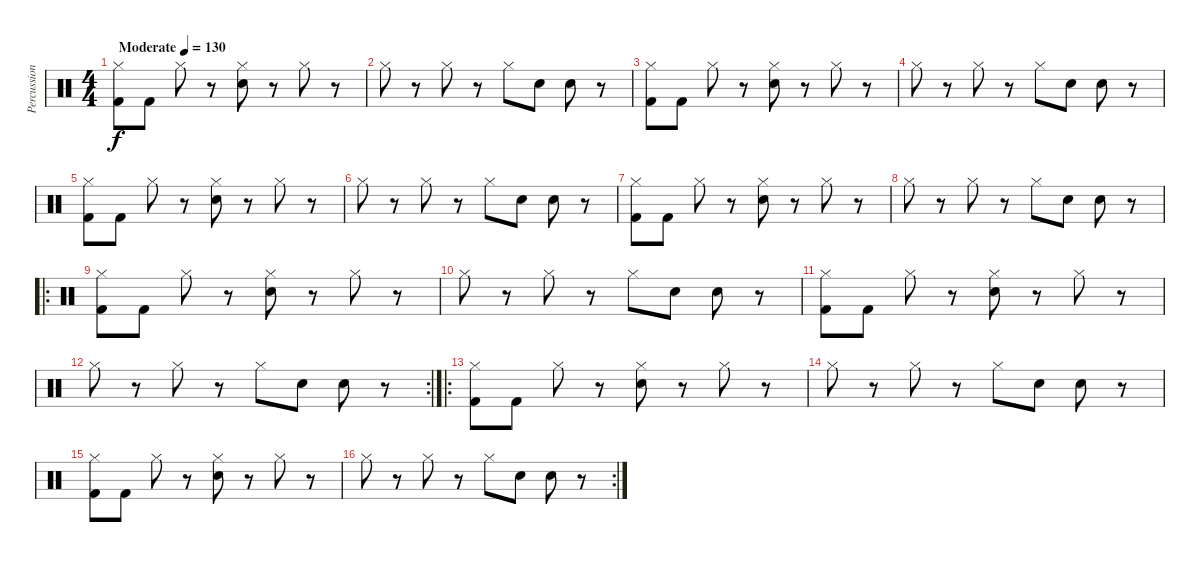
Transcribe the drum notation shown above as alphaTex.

\track ("Percussion" "Percussion") {instrument percussion}
\staff {score}
\articulation defaults
\ts (4 4)
\tempo (130 "Moderate")
\clef neutral
\ks c
("Hi-Hat (closed)" "Kick (hit) 2").8{dy f} "Kick (hit) 2".8 "Hi-Hat (closed)".8 r.8 ("Hi-Hat (closed)" "Electric Snare (hit)").8 r.8 "Hi-Hat (closed)".8 r.8 |
"Hi-Hat (closed)".8 r.8 "Hi-Hat (closed)".8 r.8 "Hi-Hat (closed)".8 "Electric Snare (hit)".8 "Electric Snare (hit)".8 r.8 |
("Hi-Hat (closed)" "Kick (hit) 2").8 "Kick (hit) 2".8 "Hi-Hat (closed)".8 r.8 ("Hi-Hat (closed)" "Electric Snare (hit)").8 r.8 "Hi-Hat (closed)".8 r.8 |
"Hi-Hat (closed)".8 r.8 "Hi-Hat (closed)".8 r.8 "Hi-Hat (closed)".8 "Electric Snare (hit)".8 "Electric Snare (hit)".8 r.8 |
("Hi-Hat (closed)" "Kick (hit) 2").8 "Kick (hit) 2".8 "Hi-Hat (closed)".8 r.8 ("Hi-Hat (closed)" "Electric Snare (hit)").8 r.8 "Hi-Hat (closed)".8 r.8 |
"Hi-Hat (closed)".8 r.8 "Hi-Hat (closed)".8 r.8 "Hi-Hat (closed)".8 "Electric Snare (hit)".8 "Electric Snare (hit)".8 r.8 |
("Hi-Hat (closed)" "Kick (hit) 2").8 "Kick (hit) 2".8 "Hi-Hat (closed)".8 r.8 ("Hi-Hat (closed)" "Electric Snare (hit)").8 r.8 "Hi-Hat (closed)".8 r.8 |
"Hi-Hat (closed)".8 r.8 "Hi-Hat (closed)".8 r.8 "Hi-Hat (closed)".8 "Electric Snare (hit)".8 "Electric Snare (hit)".8 r.8 |
\ro
("Hi-Hat (closed)" "Kick (hit) 2").8 "Kick (hit) 2".8 "Hi-Hat (closed)".8 r.8 ("Hi-Hat (closed)" "Electric Snare (hit)").8 r.8 "Hi-Hat (closed)".8 r.8 |
"Hi-Hat (closed)".8 r.8 "Hi-Hat (closed)".8 r.8 "Hi-Hat (closed)".8 "Electric Snare (hit)".8 "Electric Snare (hit)".8 r.8 |
("Hi-Hat (closed)" "Kick (hit) 2").8 "Kick (hit) 2".8 "Hi-Hat (closed)".8 r.8 ("Hi-Hat (closed)" "Electric Snare (hit)").8 r.8 "Hi-Hat (closed)".8 r.8 |
\rc 2 "Hi-Hat (closed)".8
r.8 "Hi-Hat (closed)".8 r.8 "Hi-Hat (closed)".8 "Electric Snare (hit)".8 "Electric Snare (hit)".8 r.8 |
\ro
("Hi-Hat (closed)" "Kick (hit) 2").8 "Kick (hit) 2".8 "Hi-Hat (closed)".8 r.8 ("Hi-Hat (closed)" "Electric Snare (hit)").8 r.8 "Hi-Hat (closed)".8 r.8 |
"Hi-Hat (closed)".8 r.8 "Hi-Hat (closed)".8 r.8 "Hi-Hat (closed)".8 "Electric Snare (hit)".8 "Electric Snare (hit)".8 r.8 |
("Hi-Hat (closed)" "Kick (hit) 2").8 "Kick (hit) 2".8 "Hi-Hat (closed)".8 r.8 ("Hi-Hat (closed)" "Electric Snare (hit)").8 r.8 "Hi-Hat (closed)".8 r.8 |
\rc 2 "Hi-Hat (closed)".8
r.8 "Hi-Hat (closed)".8 r.8 "Hi-Hat (closed)".8 "Electric Snare (hit)".8 "Electric Snare (hit)".8 r.8
